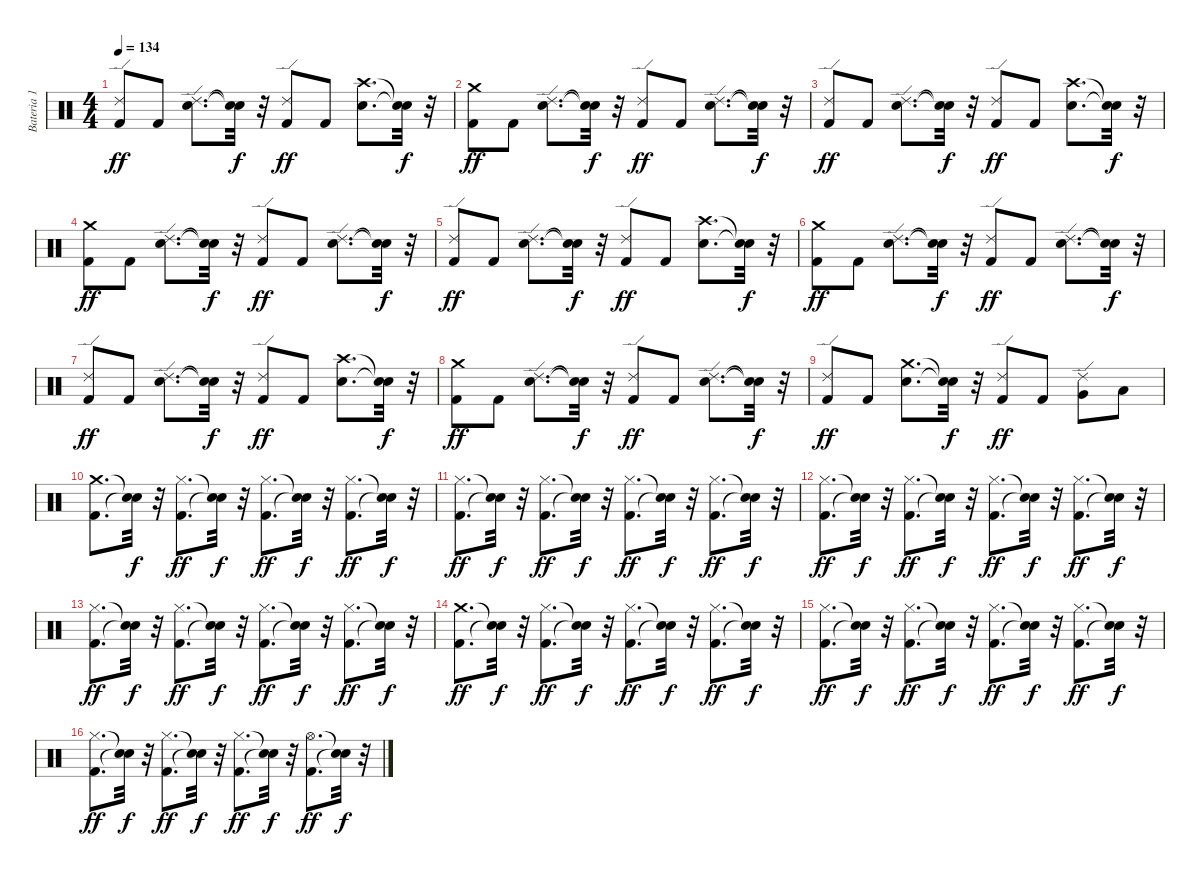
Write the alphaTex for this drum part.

\track ("Bateria 1" "Bateria 1") {instrument percussion}
\staff {score}
\articulation defaults
\ts (4 4)
\tempo 134
\clef neutral
\ks c
("Kick (hit) 2" "Ride (edge) 2").8{dy ff} "Kick (hit) 2".8 ("Electric Snare (hit)" "Ride (edge) 2").8{d} ("Snare (hit)"{t} "Snare (hit)"{t}).32{dy f} r.32 ("Kick (hit) 2" "Ride (edge) 2").8{dy ff} "Kick (hit) 2".8 ("Electric Snare (hit)" "Crash high (hit)").8{d} ("Snare (hit)"{t} "Snare (hit)"{t}).32{dy f} r.32 |
("Kick (hit) 2" "Crash medium (hit)").8{dy ff} "Kick (hit) 2".8 ("Electric Snare (hit)" "Ride (edge) 2").8{d} ("Snare (hit)"{t} "Snare (hit)"{t}).32{dy f} r.32 ("Kick (hit) 2" "Ride (edge) 2").8{dy ff} "Kick (hit) 2".8 ("Electric Snare (hit)" "Ride (edge) 2").8{d} ("Snare (hit)"{t} "Snare (hit)"{t}).32{dy f} r.32 |
("Kick (hit) 2" "Ride (edge) 2").8{dy ff} "Kick (hit) 2".8 ("Electric Snare (hit)" "Ride (edge) 2").8{d} ("Snare (hit)"{t} "Snare (hit)"{t}).32{dy f} r.32 ("Kick (hit) 2" "Ride (edge) 2").8{dy ff} "Kick (hit) 2".8 ("Electric Snare (hit)" "Crash high (hit)").8{d} ("Snare (hit)"{t} "Snare (hit)"{t}).32{dy f} r.32 |
("Kick (hit) 2" "Crash medium (hit)").8{dy ff} "Kick (hit) 2".8 ("Electric Snare (hit)" "Ride (edge) 2").8{d} ("Snare (hit)"{t} "Snare (hit)"{t}).32{dy f} r.32 ("Kick (hit) 2" "Ride (edge) 2").8{dy ff} "Kick (hit) 2".8 ("Electric Snare (hit)" "Ride (edge) 2").8{d} ("Snare (hit)"{t} "Snare (hit)"{t}).32{dy f} r.32 |
("Kick (hit) 2" "Ride (edge) 2").8{dy ff} "Kick (hit) 2".8 ("Electric Snare (hit)" "Ride (edge) 2").8{d} ("Snare (hit)"{t} "Snare (hit)"{t}).32{dy f} r.32 ("Kick (hit) 2" "Ride (edge) 2").8{dy ff} "Kick (hit) 2".8 ("Electric Snare (hit)" "Crash high (hit)").8{d} ("Snare (hit)"{t} "Snare (hit)"{t}).32{dy f} r.32 |
("Kick (hit) 2" "Crash medium (hit)").8{dy ff} "Kick (hit) 2".8 ("Electric Snare (hit)" "Ride (edge) 2").8{d} ("Snare (hit)"{t} "Snare (hit)"{t}).32{dy f} r.32 ("Kick (hit) 2" "Ride (edge) 2").8{dy ff} "Kick (hit) 2".8 ("Electric Snare (hit)" "Ride (edge) 2").8{d} ("Snare (hit)"{t} "Snare (hit)"{t}).32{dy f} r.32 |
("Kick (hit) 2" "Ride (edge) 2").8{dy ff} "Kick (hit) 2".8 ("Electric Snare (hit)" "Ride (edge) 2").8{d} ("Snare (hit)"{t} "Snare (hit)"{t}).32{dy f} r.32 ("Kick (hit) 2" "Ride (edge) 2").8{dy ff} "Kick (hit) 2".8 ("Electric Snare (hit)" "Crash high (hit)").8{d} ("Snare (hit)"{t} "Snare (hit)"{t}).32{dy f} r.32 |
("Kick (hit) 2" "Crash medium (hit)").8{dy ff} "Kick (hit) 2".8 ("Electric Snare (hit)" "Ride (edge) 2").8{d} ("Snare (hit)"{t} "Snare (hit)"{t}).32{dy f} r.32 ("Kick (hit) 2" "Ride (edge) 2").8{dy ff} "Kick (hit) 2".8 ("Electric Snare (hit)" "Ride (edge) 2").8{d} ("Snare (hit)"{t} "Snare (hit)"{t}).32{dy f} r.32 |
("Kick (hit) 2" "Ride (edge) 2").8{dy ff} "Kick (hit) 2".8 ("Electric Snare (hit)" "Crash medium (hit)").8{d} ("Snare (hit)"{t} "Snare (hit)"{t}).32{dy f} r.32 ("Kick (hit) 2" "Ride (edge) 2").8{dy ff} "Kick (hit) 2".8 ("Very Low Tom (hit)" "Ride (edge) 2").8 "Low Floor Tom (hit)".8 |
("Kick (hit) 2" "Crash medium (hit)").8{d} ("Snare (hit)"{t} "Snare (hit)"{t}).32{dy f} r.32 ("Kick (hit) 2" "Hi-Hat (closed)").8{d dy ff} ("Snare (hit)"{t} "Snare (hit)"{t}).32{dy f} r.32 ("Kick (hit) 2" "Hi-Hat (closed)").8{d dy ff} ("Snare (hit)"{t} "Snare (hit)"{t}).32{dy f} r.32 ("Kick (hit) 2" "Hi-Hat (closed)").8{d dy ff} ("Snare (hit)"{t} "Snare (hit)"{t}).32{dy f} r.32 |
("Kick (hit) 2" "Hi-Hat (closed)").8{d dy ff} ("Snare (hit)"{t} "Snare (hit)"{t}).32{dy f} r.32 ("Kick (hit) 2" "Hi-Hat (closed)").8{d dy ff} ("Snare (hit)"{t} "Snare (hit)"{t}).32{dy f} r.32 ("Kick (hit) 2" "Hi-Hat (closed)").8{d dy ff} ("Snare (hit)"{t} "Snare (hit)"{t}).32{dy f} r.32 ("Kick (hit) 2" "Hi-Hat (closed)").8{d dy ff} ("Snare (hit)"{t} "Snare (hit)"{t}).32{dy f} r.32 |
("Kick (hit) 2" "Hi-Hat (closed)").8{d dy ff} ("Snare (hit)"{t} "Snare (hit)"{t}).32{dy f} r.32 ("Kick (hit) 2" "Hi-Hat (closed)").8{d dy ff} ("Snare (hit)"{t} "Snare (hit)"{t}).32{dy f} r.32 ("Kick (hit) 2" "Hi-Hat (closed)").8{d dy ff} ("Snare (hit)"{t} "Snare (hit)"{t}).32{dy f} r.32 ("Kick (hit) 2" "Hi-Hat (closed)").8{d dy ff} ("Snare (hit)"{t} "Snare (hit)"{t}).32{dy f} r.32 |
("Kick (hit) 2" "Hi-Hat (closed)").8{d dy ff} ("Snare (hit)"{t} "Snare (hit)"{t}).32{dy f} r.32 ("Kick (hit) 2" "Hi-Hat (closed)").8{d dy ff} ("Snare (hit)"{t} "Snare (hit)"{t}).32{dy f} r.32 ("Kick (hit) 2" "Hi-Hat (closed)").8{d dy ff} ("Snare (hit)"{t} "Snare (hit)"{t}).32{dy f} r.32 ("Kick (hit) 2" "Hi-Hat (closed)").8{d dy ff} ("Snare (hit)"{t} "Snare (hit)"{t}).32{dy f} r.32 |
("Kick (hit) 2" "Crash medium (hit)").8{d dy ff} ("Snare (hit)"{t} "Snare (hit)"{t}).32{dy f} r.32 ("Kick (hit) 2" "Hi-Hat (closed)").8{d dy ff} ("Snare (hit)"{t} "Snare (hit)"{t}).32{dy f} r.32 ("Kick (hit) 2" "Hi-Hat (closed)").8{d dy ff} ("Snare (hit)"{t} "Snare (hit)"{t}).32{dy f} r.32 ("Kick (hit) 2" "Hi-Hat (closed)").8{d dy ff} ("Snare (hit)"{t} "Snare (hit)"{t}).32{dy f} r.32 |
("Kick (hit) 2" "Hi-Hat (closed)").8{d dy ff} ("Snare (hit)"{t} "Snare (hit)"{t}).32{dy f} r.32 ("Kick (hit) 2" "Hi-Hat (closed)").8{d dy ff} ("Snare (hit)"{t} "Snare (hit)"{t}).32{dy f} r.32 ("Kick (hit) 2" "Hi-Hat (closed)").8{d dy ff} ("Snare (hit)"{t} "Snare (hit)"{t}).32{dy f} r.32 ("Kick (hit) 2" "Hi-Hat (closed)").8{d dy ff} ("Snare (hit)"{t} "Snare (hit)"{t}).32{dy f} r.32 |
("Kick (hit) 2" "Hi-Hat (closed)").8{d dy ff} ("Snare (hit)"{t} "Snare (hit)"{t}).32{dy f} r.32 ("Kick (hit) 2" "Hi-Hat (closed)").8{d dy ff} ("Snare (hit)"{t} "Snare (hit)"{t}).32{dy f} r.32 ("Kick (hit) 2" "Hi-Hat (closed)").8{d dy ff} ("Snare (hit)"{t} "Snare (hit)"{t}).32{dy f} r.32 ("Kick (hit) 2" "Hi-Hat (open)").8{d dy ff} ("Snare (hit)"{t} "Snare (hit)"{t}).32{dy f} r.32
